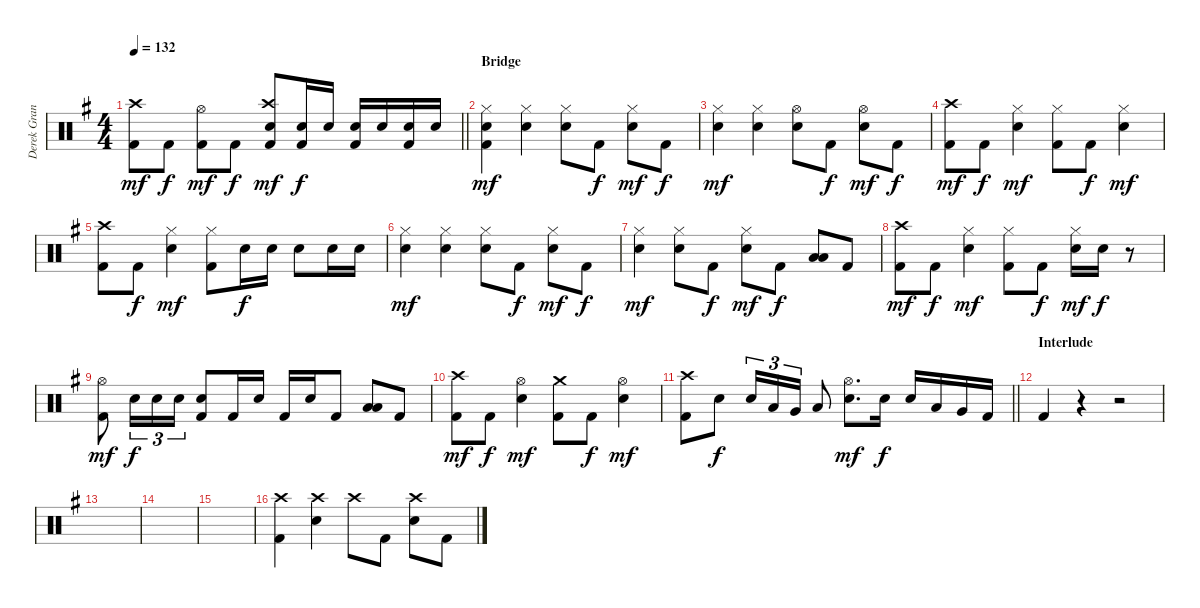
\track ("Derek Grant - Drums" "Derek Gran") {instrument percussion}
\staff {score}
\articulation defaults
\ts (4 4)
\tempo 132
\clef neutral
\barLineRight lightlight
\ks g
("Kick (hit) 2" "Crash high (hit)").8{dy mf} "Kick (hit) 2".8{dy f} ("Kick (hit) 2" "Hi-Hat (open)").8{dy mf} "Kick (hit) 2".8{dy f} ("Kick (hit) 2" "Snare (hit) 2" "Crash high (hit)").8{dy mf} ("Kick (hit) 2" "Snare (hit) 2").16{dy f} "Snare (hit) 2".16 ("Kick (hit) 2" "Snare (hit) 2").16 "Snare (hit) 2".16 ("Kick (hit) 2" "Snare (hit) 2").16 "Snare (hit) 2".16 |
\section ("" "Bridge")
("Kick (hit) 2" "Snare (hit) 2" "Hi-Hat (closed)").4{dy mf} ("Snare (hit) 2" "Hi-Hat (closed)").4 ("Snare (hit) 2" "Hi-Hat (closed)").8 "Kick (hit) 2".8{dy f} ("Snare (hit) 2" "Hi-Hat (closed)").8{dy mf} "Kick (hit) 2".8{dy f} |
("Hi-Hat (closed)" "Snare (hit) 2").4{dy mf} ("Snare (hit) 2" "Hi-Hat (closed)").4 ("Snare (hit) 2" "Hi-Hat (open)").8 "Kick (hit) 2".8{dy f} ("Snare (hit) 2" "Hi-Hat (open)").8{dy mf} "Kick (hit) 2".8{dy f} |
("Kick (hit) 2" "Crash high (hit)").8{dy mf} "Kick (hit) 2".8{dy f} ("Snare (hit) 2" "Hi-Hat (closed)").4{dy mf} ("Kick (hit) 2" "Hi-Hat (closed)").8 "Kick (hit) 2".8{dy f} ("Snare (hit) 2" "Hi-Hat (closed)").4{dy mf} |
("Kick (hit) 2" "Crash high (hit)").8 "Kick (hit) 2".8{dy f} ("Snare (hit) 2" "Hi-Hat (closed)").4{dy mf} ("Kick (hit) 2" "Hi-Hat (closed)").8 "Snare (hit) 2".16{dy f} "Snare (hit) 2".16 "Snare (hit) 2".8 "Snare (hit) 2".16 "Snare (hit) 2".16 |
("Hi-Hat (closed)" "Snare (hit) 2").4{dy mf} ("Snare (hit) 2" "Hi-Hat (closed)").4 ("Snare (hit) 2" "Hi-Hat (closed)").8 "Kick (hit) 2".8{dy f} ("Snare (hit) 2" "Hi-Hat (closed)").8{dy mf} "Kick (hit) 2".8{dy f} |
("Hi-Hat (closed)" "Snare (hit) 2").4{dy mf} ("Snare (hit) 2" "Hi-Hat (closed)").8 "Kick (hit) 2".8{dy f} ("Snare (hit) 2" "Hi-Hat (closed)").8{dy mf} "Kick (hit) 2".8{dy f} ("Low Floor Tom (hit)" "Low Tom (hit)").8 "Kick (hit) 2".8 |
("Kick (hit) 2" "Crash high (hit)").8{dy mf} "Kick (hit) 2".8{dy f} ("Snare (hit) 2" "Hi-Hat (closed)").4{dy mf} ("Kick (hit) 2" "Hi-Hat (closed)").8 "Kick (hit) 2".8{dy f} ("Snare (hit) 2" "Hi-Hat (closed)").16{dy mf} "Snare (hit) 2".16{dy f} r.8 |
("Kick (hit) 2" "Hi-Hat (open)").8{dy mf} "Snare (hit) 2".16{tu (3 2) dy f} "Snare (hit) 2".16{tu (3 2)} "Snare (hit) 2".16{tu (3 2)} ("Snare (hit) 2" "Kick (hit) 2").8 "Kick (hit) 2".16 "Snare (hit) 2".16 "Kick (hit) 2".16 "Snare (hit) 2".16 "Kick (hit) 2".8 ("Low Floor Tom (hit)" "Low Tom (hit)").8 "Kick (hit) 2".8 |
("Kick (hit) 2" "Crash high (hit)").8{dy mf} "Kick (hit) 2".8{dy f} ("Snare (hit) 2" "Hi-Hat (open)").4{dy mf} ("Kick (hit) 2" "Crash medium (hit)").8 "Kick (hit) 2".8{dy f} ("Snare (hit) 2" "Hi-Hat (open)").4{dy mf} |
\barLineRight lightlight
("Kick (hit) 2" "Crash high (hit)").8 "Snare (hit) 2".8{dy f} "Snare (hit) 2".16{tu (3 2)} "Low Tom (hit)".16{tu (3 2)} "Very Low Tom (hit)".16{tu (3 2)} "Low Floor Tom (hit)".8 ("Snare (hit) 2" "Hi-Hat (open)").8{d dy mf} "Snare (hit) 2".16{dy f} "Snare (hit) 2".16 "Low Tom (hit)".16 "Very Low Tom (hit)".16 "Kick (hit) 2".16 |
\section ("" "Interlude")
"Kick (hit) 2".4 r.4 r.2 |
|
|
|
("Kick (hit) 2" "Crash high (hit)").4 ("Snare (hit) 2" "Crash high (hit)").4 "Crash high (hit)".8 "Kick (hit) 2".8 ("Snare (hit) 2" "Crash high (hit)").8 "Kick (hit) 2".8
